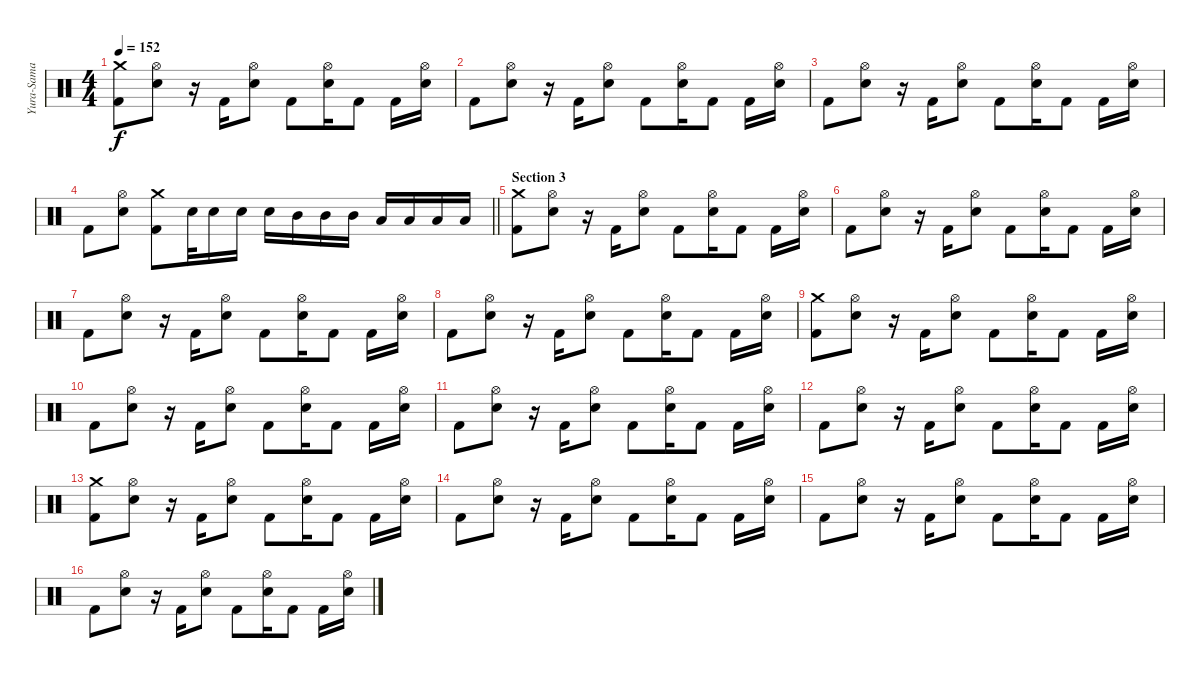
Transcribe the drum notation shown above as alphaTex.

\track ("Yura-Sama" "Yura-Sama") {instrument percussion}
\staff {score}
\articulation defaults
\ts (4 4)
\tempo 152
\clef neutral
\ks c
("Kick (hit) 2" "Crash medium (hit)").8{dy f} ("Electric Snare (hit)" "Hi-Hat (open)").8 r.16 "Kick (hit) 2".16 ("Electric Snare (hit)" "Hi-Hat (open)").8 "Kick (hit) 2".8 ("Electric Snare (hit)" "Hi-Hat (open)").16 "Kick (hit) 2".8 "Kick (hit) 2".16 ("Electric Snare (hit)" "Hi-Hat (open)").16 |
"Kick (hit) 2".8 ("Electric Snare (hit)" "Hi-Hat (open)").8 r.16 "Kick (hit) 2".16 ("Electric Snare (hit)" "Hi-Hat (open)").8 "Kick (hit) 2".8 ("Electric Snare (hit)" "Hi-Hat (open)").16 "Kick (hit) 2".8 "Kick (hit) 2".16 ("Electric Snare (hit)" "Hi-Hat (open)").16 |
"Kick (hit) 2".8 ("Electric Snare (hit)" "Hi-Hat (open)").8 r.16 "Kick (hit) 2".16 ("Electric Snare (hit)" "Hi-Hat (open)").8 "Kick (hit) 2".8 ("Electric Snare (hit)" "Hi-Hat (open)").16 "Kick (hit) 2".8 "Kick (hit) 2".16 ("Electric Snare (hit)" "Hi-Hat (open)").16 |
\barLineRight lightlight "Kick (hit) 2".8
("Electric Snare (hit)" "Hi-Hat (open)").8 ("Kick (hit) 2" "Crash medium (hit)").8 "Electric Snare (hit)".32 "Electric Snare (hit)".16 "Electric Snare (hit)".16 "Electric Snare (hit)".16 "Mid Tom (hit)".16 "Mid Tom (hit)".16 "Mid Tom (hit)".16 "Low Tom (hit)".16 "Low Tom (hit)".16 "Low Tom (hit)".16 "Low Tom (hit)".16 |
\section ("" "Section 3")
("Kick (hit) 2" "Crash medium (hit)").8 ("Electric Snare (hit)" "Hi-Hat (open)").8 r.16 "Kick (hit) 2".16 ("Electric Snare (hit)" "Hi-Hat (open)").8 "Kick (hit) 2".8 ("Electric Snare (hit)" "Hi-Hat (open)").16 "Kick (hit) 2".8 "Kick (hit) 2".16 ("Electric Snare (hit)" "Hi-Hat (open)").16 |
"Kick (hit) 2".8 ("Electric Snare (hit)" "Hi-Hat (open)").8 r.16 "Kick (hit) 2".16 ("Electric Snare (hit)" "Hi-Hat (open)").8 "Kick (hit) 2".8 ("Electric Snare (hit)" "Hi-Hat (open)").16 "Kick (hit) 2".8 "Kick (hit) 2".16 ("Electric Snare (hit)" "Hi-Hat (open)").16 |
"Kick (hit) 2".8 ("Electric Snare (hit)" "Hi-Hat (open)").8 r.16 "Kick (hit) 2".16 ("Electric Snare (hit)" "Hi-Hat (open)").8 "Kick (hit) 2".8 ("Electric Snare (hit)" "Hi-Hat (open)").16 "Kick (hit) 2".8 "Kick (hit) 2".16 ("Electric Snare (hit)" "Hi-Hat (open)").16 |
"Kick (hit) 2".8 ("Electric Snare (hit)" "Hi-Hat (open)").8 r.16 "Kick (hit) 2".16 ("Electric Snare (hit)" "Hi-Hat (open)").8 "Kick (hit) 2".8 ("Electric Snare (hit)" "Hi-Hat (open)").16 "Kick (hit) 2".8 "Kick (hit) 2".16 ("Electric Snare (hit)" "Hi-Hat (open)").16 |
("Kick (hit) 2" "Crash medium (hit)").8 ("Electric Snare (hit)" "Hi-Hat (open)").8 r.16 "Kick (hit) 2".16 ("Electric Snare (hit)" "Hi-Hat (open)").8 "Kick (hit) 2".8 ("Electric Snare (hit)" "Hi-Hat (open)").16 "Kick (hit) 2".8 "Kick (hit) 2".16 ("Electric Snare (hit)" "Hi-Hat (open)").16 |
"Kick (hit) 2".8 ("Electric Snare (hit)" "Hi-Hat (open)").8 r.16 "Kick (hit) 2".16 ("Electric Snare (hit)" "Hi-Hat (open)").8 "Kick (hit) 2".8 ("Electric Snare (hit)" "Hi-Hat (open)").16 "Kick (hit) 2".8 "Kick (hit) 2".16 ("Electric Snare (hit)" "Hi-Hat (open)").16 |
"Kick (hit) 2".8 ("Electric Snare (hit)" "Hi-Hat (open)").8 r.16 "Kick (hit) 2".16 ("Electric Snare (hit)" "Hi-Hat (open)").8 "Kick (hit) 2".8 ("Electric Snare (hit)" "Hi-Hat (open)").16 "Kick (hit) 2".8 "Kick (hit) 2".16 ("Electric Snare (hit)" "Hi-Hat (open)").16 |
"Kick (hit) 2".8 ("Electric Snare (hit)" "Hi-Hat (open)").8 r.16 "Kick (hit) 2".16 ("Electric Snare (hit)" "Hi-Hat (open)").8 "Kick (hit) 2".8 ("Electric Snare (hit)" "Hi-Hat (open)").16 "Kick (hit) 2".8 "Kick (hit) 2".16 ("Electric Snare (hit)" "Hi-Hat (open)").16 |
("Kick (hit) 2" "Crash medium (hit)").8 ("Electric Snare (hit)" "Hi-Hat (open)").8 r.16 "Kick (hit) 2".16 ("Electric Snare (hit)" "Hi-Hat (open)").8 "Kick (hit) 2".8 ("Electric Snare (hit)" "Hi-Hat (open)").16 "Kick (hit) 2".8 "Kick (hit) 2".16 ("Electric Snare (hit)" "Hi-Hat (open)").16 |
"Kick (hit) 2".8 ("Electric Snare (hit)" "Hi-Hat (open)").8 r.16 "Kick (hit) 2".16 ("Electric Snare (hit)" "Hi-Hat (open)").8 "Kick (hit) 2".8 ("Electric Snare (hit)" "Hi-Hat (open)").16 "Kick (hit) 2".8 "Kick (hit) 2".16 ("Electric Snare (hit)" "Hi-Hat (open)").16 |
"Kick (hit) 2".8 ("Electric Snare (hit)" "Hi-Hat (open)").8 r.16 "Kick (hit) 2".16 ("Electric Snare (hit)" "Hi-Hat (open)").8 "Kick (hit) 2".8 ("Electric Snare (hit)" "Hi-Hat (open)").16 "Kick (hit) 2".8 "Kick (hit) 2".16 ("Electric Snare (hit)" "Hi-Hat (open)").16 |
"Kick (hit) 2".8 ("Electric Snare (hit)" "Hi-Hat (open)").8 r.16 "Kick (hit) 2".16 ("Electric Snare (hit)" "Hi-Hat (open)").8 "Kick (hit) 2".8 ("Electric Snare (hit)" "Hi-Hat (open)").16 "Kick (hit) 2".8 "Kick (hit) 2".16 ("Electric Snare (hit)" "Hi-Hat (open)").16
